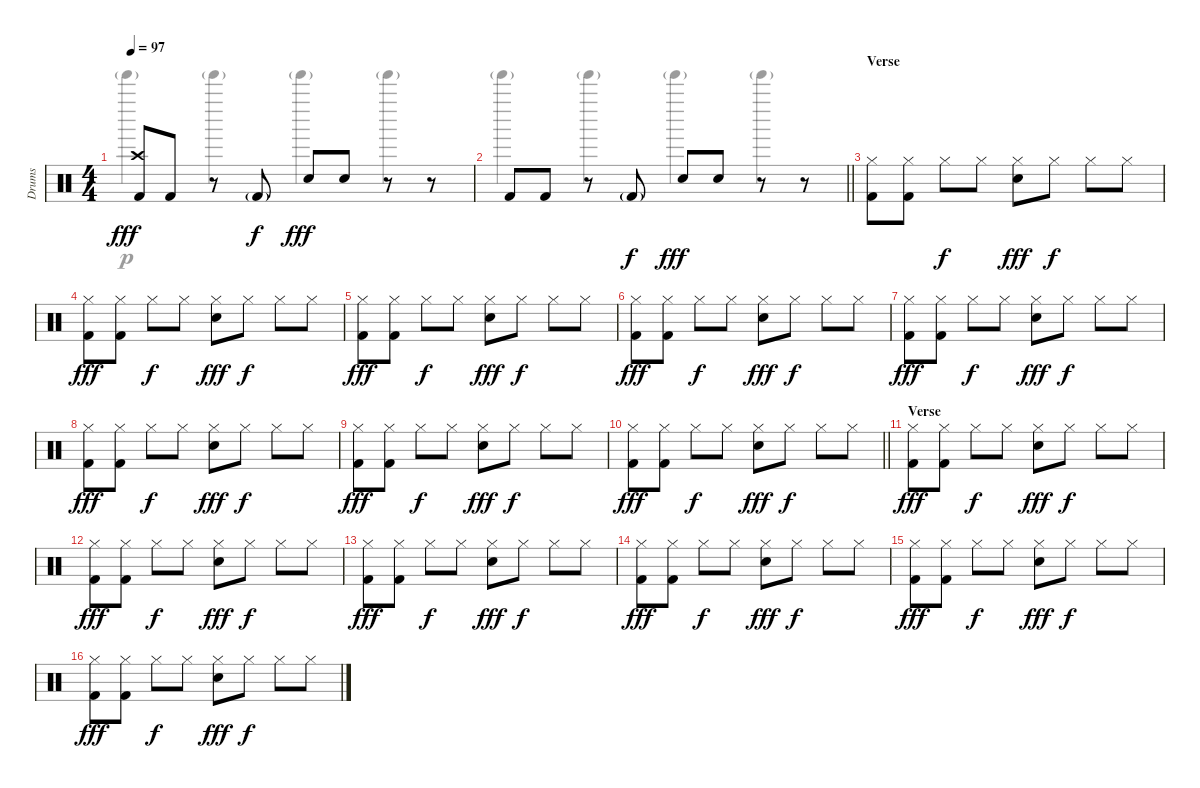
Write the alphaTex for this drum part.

\track ("Drums" "Drums") {instrument percussion}
\staff {score}
\articulation defaults
\voice
\ts (4 4)
\tempo 97
\clef neutral
\ks c
("Crash high (hit)" "Kick (hit) 2").8{dy fff} "Kick (hit) 2".8 r.8 "Kick (hit) 2"{g}.8{dy f} "Electric Snare (hit)".8{dy fff} "Electric Snare (hit)".8 r.8 r.8 |
\barLineRight lightlight "Kick (hit) 2".8 "Kick (hit) 2".8
r.8 "Kick (hit) 2"{g}.8{dy f} "Electric Snare (hit)".8{dy fff} "Electric Snare (hit)".8 r.8 r.8 |
\section ("" "Verse")
("Hi-Hat (closed)" "Kick (hit) 2").8 ("Hi-Hat (closed)" "Kick (hit) 2").8 "Hi-Hat (closed)".8{dy f} "Hi-Hat (closed)".8 ("Hi-Hat (closed)" "Electric Snare (hit)").8{dy fff} "Hi-Hat (closed)".8{dy f} "Hi-Hat (closed)".8 "Hi-Hat (closed)".8 |
("Hi-Hat (closed)" "Kick (hit) 2").8{dy fff} ("Hi-Hat (closed)" "Kick (hit) 2").8 "Hi-Hat (closed)".8{dy f} "Hi-Hat (closed)".8 ("Hi-Hat (closed)" "Electric Snare (hit)").8{dy fff} "Hi-Hat (closed)".8{dy f} "Hi-Hat (closed)".8 "Hi-Hat (closed)".8 |
("Hi-Hat (closed)" "Kick (hit) 2").8{dy fff} ("Hi-Hat (closed)" "Kick (hit) 2").8 "Hi-Hat (closed)".8{dy f} "Hi-Hat (closed)".8 ("Hi-Hat (closed)" "Electric Snare (hit)").8{dy fff} "Hi-Hat (closed)".8{dy f} "Hi-Hat (closed)".8 "Hi-Hat (closed)".8 |
("Hi-Hat (closed)" "Kick (hit) 2").8{dy fff} ("Hi-Hat (closed)" "Kick (hit) 2").8 "Hi-Hat (closed)".8{dy f} "Hi-Hat (closed)".8 ("Hi-Hat (closed)" "Electric Snare (hit)").8{dy fff} "Hi-Hat (closed)".8{dy f} "Hi-Hat (closed)".8 "Hi-Hat (closed)".8 |
("Hi-Hat (closed)" "Kick (hit) 2").8{dy fff} ("Hi-Hat (closed)" "Kick (hit) 2").8 "Hi-Hat (closed)".8{dy f} "Hi-Hat (closed)".8 ("Hi-Hat (closed)" "Electric Snare (hit)").8{dy fff} "Hi-Hat (closed)".8{dy f} "Hi-Hat (closed)".8 "Hi-Hat (closed)".8 |
("Hi-Hat (closed)" "Kick (hit) 2").8{dy fff} ("Hi-Hat (closed)" "Kick (hit) 2").8 "Hi-Hat (closed)".8{dy f} "Hi-Hat (closed)".8 ("Hi-Hat (closed)" "Electric Snare (hit)").8{dy fff} "Hi-Hat (closed)".8{dy f} "Hi-Hat (closed)".8 "Hi-Hat (closed)".8 |
("Hi-Hat (closed)" "Kick (hit) 2").8{dy fff} ("Hi-Hat (closed)" "Kick (hit) 2").8 "Hi-Hat (closed)".8{dy f} "Hi-Hat (closed)".8 ("Hi-Hat (closed)" "Electric Snare (hit)").8{dy fff} "Hi-Hat (closed)".8{dy f} "Hi-Hat (closed)".8 "Hi-Hat (closed)".8 |
\barLineRight lightlight
("Hi-Hat (closed)" "Kick (hit) 2").8{dy fff} ("Hi-Hat (closed)" "Kick (hit) 2").8 "Hi-Hat (closed)".8{dy f} "Hi-Hat (closed)".8 ("Hi-Hat (closed)" "Electric Snare (hit)").8{dy fff} "Hi-Hat (closed)".8{dy f} "Hi-Hat (closed)".8 "Hi-Hat (closed)".8 |
\section ("" "Verse")
("Hi-Hat (closed)" "Kick (hit) 2").8{dy fff} ("Hi-Hat (closed)" "Kick (hit) 2").8 "Hi-Hat (closed)".8{dy f} "Hi-Hat (closed)".8 ("Hi-Hat (closed)" "Electric Snare (hit)").8{dy fff} "Hi-Hat (closed)".8{dy f} "Hi-Hat (closed)".8 "Hi-Hat (closed)".8 |
("Hi-Hat (closed)" "Kick (hit) 2").8{dy fff} ("Hi-Hat (closed)" "Kick (hit) 2").8 "Hi-Hat (closed)".8{dy f} "Hi-Hat (closed)".8 ("Hi-Hat (closed)" "Electric Snare (hit)").8{dy fff} "Hi-Hat (closed)".8{dy f} "Hi-Hat (closed)".8 "Hi-Hat (closed)".8 |
("Hi-Hat (closed)" "Kick (hit) 2").8{dy fff} ("Hi-Hat (closed)" "Kick (hit) 2").8 "Hi-Hat (closed)".8{dy f} "Hi-Hat (closed)".8 ("Hi-Hat (closed)" "Electric Snare (hit)").8{dy fff} "Hi-Hat (closed)".8{dy f} "Hi-Hat (closed)".8 "Hi-Hat (closed)".8 |
("Hi-Hat (closed)" "Kick (hit) 2").8{dy fff} ("Hi-Hat (closed)" "Kick (hit) 2").8 "Hi-Hat (closed)".8{dy f} "Hi-Hat (closed)".8 ("Hi-Hat (closed)" "Electric Snare (hit)").8{dy fff} "Hi-Hat (closed)".8{dy f} "Hi-Hat (closed)".8 "Hi-Hat (closed)".8 |
("Hi-Hat (closed)" "Kick (hit) 2").8{dy fff} ("Hi-Hat (closed)" "Kick (hit) 2").8 "Hi-Hat (closed)".8{dy f} "Hi-Hat (closed)".8 ("Hi-Hat (closed)" "Electric Snare (hit)").8{dy fff} "Hi-Hat (closed)".8{dy f} "Hi-Hat (closed)".8 "Hi-Hat (closed)".8 |
("Hi-Hat (closed)" "Kick (hit) 2").8{dy fff} ("Hi-Hat (closed)" "Kick (hit) 2").8 "Hi-Hat (closed)".8{dy f} "Hi-Hat (closed)".8 ("Hi-Hat (closed)" "Electric Snare (hit)").8{dy fff} "Hi-Hat (closed)".8{dy f} "Hi-Hat (closed)".8 "Hi-Hat (closed)".8
\voice
\clef neutral
\ottava regular
\simile none
\ks c "Tinkle Bell (hit)"{g}.4{dy p} "Tinkle Bell (hit)"{g}.4 "Tinkle Bell (hit)"{g}.4 "Tinkle Bell (hit)"{g}.4
|
\barLineRight lightlight "Tinkle Bell (hit)"{g}.4 "Tinkle Bell (hit)"{g}.4 "Tinkle Bell (hit)"{g}.4 "Tinkle Bell (hit)"{g}.4
|
|
|
|
|
|
|
|
\barLineRight lightlight
|
|
|
|
|
|
